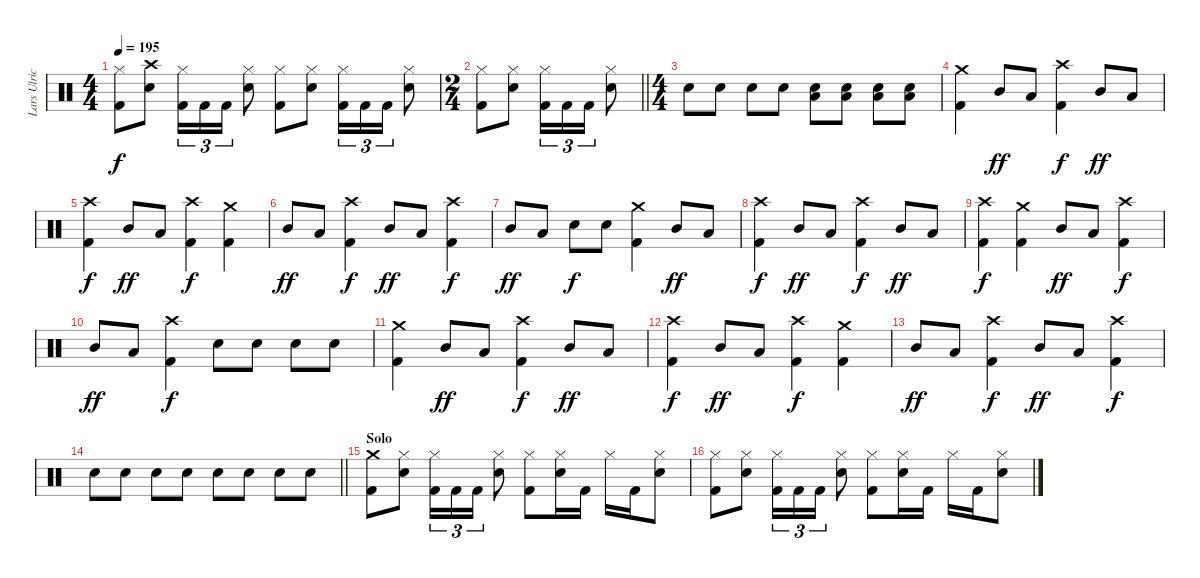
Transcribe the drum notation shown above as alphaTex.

\track ("Lars Ulrich" "Lars Ulric") {instrument percussion}
\staff {score}
\articulation defaults
\ts (4 4)
\tempo 195
\clef neutral
\ks c
("Hi-Hat (closed)" "Kick (hit) 2").8{dy f} ("Crash high (hit)" "Electric Snare (hit)").8 ("Hi-Hat (closed)" "Kick (hit) 2").16{tu (3 2)} "Kick (hit) 2".16{tu (3 2)} "Kick (hit) 2".16{tu (3 2)} ("Hi-Hat (closed)" "Electric Snare (hit)").8 ("Hi-Hat (closed)" "Kick (hit) 2").8 ("Hi-Hat (closed)" "Electric Snare (hit)").8 ("Hi-Hat (closed)" "Kick (hit) 2").16{tu (3 2)} "Kick (hit) 2".16{tu (3 2)} "Kick (hit) 2".16{tu (3 2)} ("Hi-Hat (closed)" "Electric Snare (hit)").8 |
\ts (2 4)
\barLineRight lightlight
("Hi-Hat (closed)" "Kick (hit) 2").8 ("Hi-Hat (closed)" "Electric Snare (hit)").8 ("Hi-Hat (closed)" "Kick (hit) 2").16{tu (3 2)} "Kick (hit) 2".16{tu (3 2)} "Kick (hit) 2".16{tu (3 2)} ("Hi-Hat (closed)" "Electric Snare (hit)").8 |
\ts (4 4)
\section ("" "")
"Electric Snare (hit)".8 "Electric Snare (hit)".8 "Electric Snare (hit)".8 "Electric Snare (hit)".8 ("Low Floor Tom (hit)" "Electric Snare (hit)").8 ("Low Floor Tom (hit)" "Electric Snare (hit)").8 ("Low Floor Tom (hit)" "Electric Snare (hit)").8 ("Low Floor Tom (hit)" "Electric Snare (hit)").8 |
("Crash medium (hit)" "Kick (hit) 2").4 "Mid Tom (hit)".8{dy ff} "Low Tom (hit)".8 ("Crash high (hit)" "Kick (hit) 2").4{dy f} "Mid Tom (hit)".8{dy ff} "Low Tom (hit)".8 |
("Crash high (hit)" "Kick (hit) 2").4{dy f} "Mid Tom (hit)".8{dy ff} "Low Tom (hit)".8 ("Crash high (hit)" "Kick (hit) 2").4{dy f} ("Crash medium (hit)" "Kick (hit) 2").4 |
"Mid Tom (hit)".8{dy ff} "Low Tom (hit)".8 ("Crash high (hit)" "Kick (hit) 2").4{dy f} "Mid Tom (hit)".8{dy ff} "Low Tom (hit)".8 ("Crash high (hit)" "Kick (hit) 2").4{dy f} |
"Mid Tom (hit)".8{dy ff} "Low Tom (hit)".8 "Electric Snare (hit)".8{dy f} "Electric Snare (hit)".8 ("Crash medium (hit)" "Kick (hit) 2").4 "Mid Tom (hit)".8{dy ff} "Low Tom (hit)".8 |
("Crash high (hit)" "Kick (hit) 2").4{dy f} "Mid Tom (hit)".8{dy ff} "Low Tom (hit)".8 ("Crash high (hit)" "Kick (hit) 2").4{dy f} "Mid Tom (hit)".8{dy ff} "Low Tom (hit)".8 |
("Crash high (hit)" "Kick (hit) 2").4{dy f} ("Crash medium (hit)" "Kick (hit) 2").4 "Mid Tom (hit)".8{dy ff} "Low Tom (hit)".8 ("Crash high (hit)" "Kick (hit) 2").4{dy f} |
"Mid Tom (hit)".8{dy ff} "Low Tom (hit)".8 ("Crash high (hit)" "Kick (hit) 2").4{dy f} "Electric Snare (hit)".8 "Electric Snare (hit)".8 "Electric Snare (hit)".8 "Electric Snare (hit)".8 |
("Crash medium (hit)" "Kick (hit) 2").4 "Mid Tom (hit)".8{dy ff} "Low Tom (hit)".8 ("Crash high (hit)" "Kick (hit) 2").4{dy f} "Mid Tom (hit)".8{dy ff} "Low Tom (hit)".8 |
("Crash high (hit)" "Kick (hit) 2").4{dy f} "Mid Tom (hit)".8{dy ff} "Low Tom (hit)".8 ("Crash high (hit)" "Kick (hit) 2").4{dy f} ("Crash medium (hit)" "Kick (hit) 2").4 |
"Mid Tom (hit)".8{dy ff} "Low Tom (hit)".8 ("Crash high (hit)" "Kick (hit) 2").4{dy f} "Mid Tom (hit)".8{dy ff} "Low Tom (hit)".8 ("Crash high (hit)" "Kick (hit) 2").4{dy f} |
\barLineRight lightlight "Electric Snare (hit)".8 "Electric Snare (hit)".8 "Electric Snare (hit)".8 "Electric Snare (hit)".8 "Electric Snare (hit)".8 "Electric Snare (hit)".8 "Electric Snare (hit)".8 "Electric Snare (hit)".8
|
\section ("" "Solo")
("Crash medium (hit)" "Kick (hit) 2").8 ("Hi-Hat (closed)" "Electric Snare (hit)").8 ("Hi-Hat (closed)" "Kick (hit) 2").16{tu (3 2)} "Kick (hit) 2".16{tu (3 2)} "Kick (hit) 2".16{tu (3 2)} ("Hi-Hat (closed)" "Electric Snare (hit)").8 ("Hi-Hat (closed)" "Kick (hit) 2").8 ("Hi-Hat (closed)" "Electric Snare (hit)").16 "Kick (hit) 2".16 "Hi-Hat (closed)".16 "Kick (hit) 2".16 ("Hi-Hat (closed)" "Electric Snare (hit)").8 |
("Hi-Hat (closed)" "Kick (hit) 2").8 ("Hi-Hat (closed)" "Electric Snare (hit)").8 ("Hi-Hat (closed)" "Kick (hit) 2").16{tu (3 2)} "Kick (hit) 2".16{tu (3 2)} "Kick (hit) 2".16{tu (3 2)} ("Hi-Hat (closed)" "Electric Snare (hit)").8 ("Hi-Hat (closed)" "Kick (hit) 2").8 ("Hi-Hat (closed)" "Electric Snare (hit)").16 "Kick (hit) 2".16 "Hi-Hat (closed)".16 "Kick (hit) 2".16 ("Hi-Hat (closed)" "Electric Snare (hit)").8
